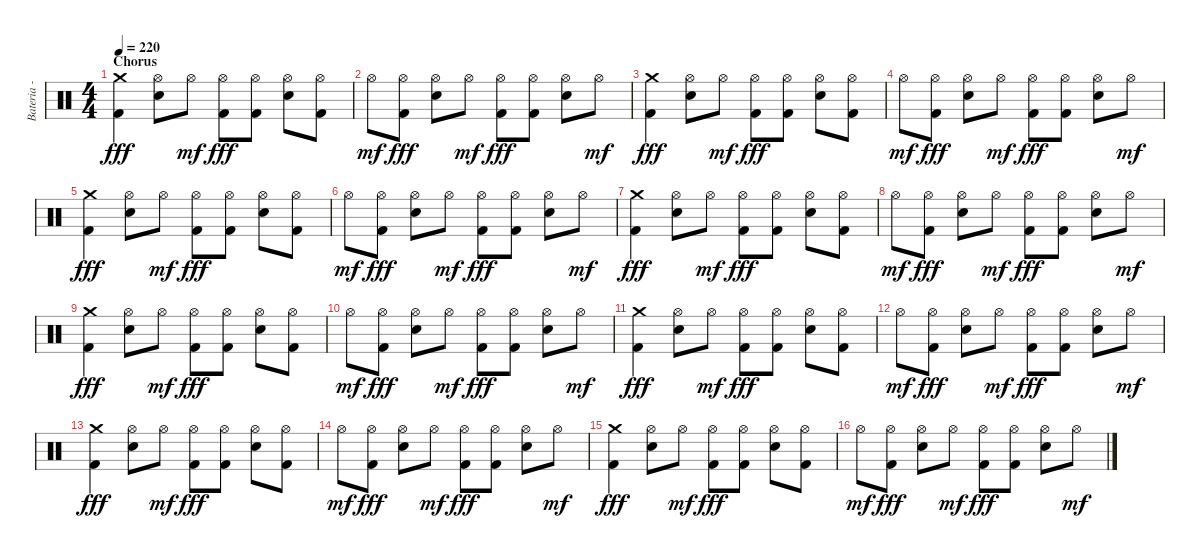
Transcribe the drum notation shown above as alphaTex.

\track ("Bateria - Larzon" "Bateria - ") {instrument percussion}
\staff {score}
\articulation defaults
\ts (4 4)
\section ("" "Chorus")
\tempo 220
\clef neutral
\ks c
("Crash medium (hit)" "Kick (hit) 2").4{dy fff} ("Hi-Hat (open)" "Electric Snare (hit)").8 "Hi-Hat (open)".8{dy mf} ("Hi-Hat (open)" "Kick (hit) 2").8{dy fff} ("Hi-Hat (open)" "Kick (hit) 2").8 ("Hi-Hat (open)" "Electric Snare (hit)").8 ("Hi-Hat (open)" "Kick (hit) 2").8 |
"Hi-Hat (open)".8{dy mf} ("Hi-Hat (open)" "Kick (hit) 2").8{dy fff} ("Hi-Hat (open)" "Electric Snare (hit)").8 "Hi-Hat (open)".8{dy mf} ("Hi-Hat (open)" "Kick (hit) 2").8{dy fff} ("Hi-Hat (open)" "Kick (hit) 2").8 ("Hi-Hat (open)" "Electric Snare (hit)").8 "Hi-Hat (open)".8{dy mf} |
("Crash medium (hit)" "Kick (hit) 2").4{dy fff} ("Hi-Hat (open)" "Electric Snare (hit)").8 "Hi-Hat (open)".8{dy mf} ("Hi-Hat (open)" "Kick (hit) 2").8{dy fff} ("Hi-Hat (open)" "Kick (hit) 2").8 ("Hi-Hat (open)" "Electric Snare (hit)").8 ("Hi-Hat (open)" "Kick (hit) 2").8 |
"Hi-Hat (open)".8{dy mf} ("Hi-Hat (open)" "Kick (hit) 2").8{dy fff} ("Hi-Hat (open)" "Electric Snare (hit)").8 "Hi-Hat (open)".8{dy mf} ("Hi-Hat (open)" "Kick (hit) 2").8{dy fff} ("Hi-Hat (open)" "Kick (hit) 2").8 ("Hi-Hat (open)" "Electric Snare (hit)").8 "Hi-Hat (open)".8{dy mf} |
("Crash medium (hit)" "Kick (hit) 2").4{dy fff} ("Hi-Hat (open)" "Electric Snare (hit)").8 "Hi-Hat (open)".8{dy mf} ("Hi-Hat (open)" "Kick (hit) 2").8{dy fff} ("Hi-Hat (open)" "Kick (hit) 2").8 ("Hi-Hat (open)" "Electric Snare (hit)").8 ("Hi-Hat (open)" "Kick (hit) 2").8 |
"Hi-Hat (open)".8{dy mf} ("Hi-Hat (open)" "Kick (hit) 2").8{dy fff} ("Hi-Hat (open)" "Electric Snare (hit)").8 "Hi-Hat (open)".8{dy mf} ("Hi-Hat (open)" "Kick (hit) 2").8{dy fff} ("Hi-Hat (open)" "Kick (hit) 2").8 ("Hi-Hat (open)" "Electric Snare (hit)").8 "Hi-Hat (open)".8{dy mf} |
("Crash medium (hit)" "Kick (hit) 2").4{dy fff} ("Hi-Hat (open)" "Electric Snare (hit)").8 "Hi-Hat (open)".8{dy mf} ("Hi-Hat (open)" "Kick (hit) 2").8{dy fff} ("Hi-Hat (open)" "Kick (hit) 2").8 ("Hi-Hat (open)" "Electric Snare (hit)").8 ("Hi-Hat (open)" "Kick (hit) 2").8 |
"Hi-Hat (open)".8{dy mf} ("Hi-Hat (open)" "Kick (hit) 2").8{dy fff} ("Hi-Hat (open)" "Electric Snare (hit)").8 "Hi-Hat (open)".8{dy mf} ("Hi-Hat (open)" "Kick (hit) 2").8{dy fff} ("Hi-Hat (open)" "Kick (hit) 2").8 ("Hi-Hat (open)" "Electric Snare (hit)").8 "Hi-Hat (open)".8{dy mf} |
("Crash medium (hit)" "Kick (hit) 2").4{dy fff} ("Hi-Hat (open)" "Electric Snare (hit)").8 "Hi-Hat (open)".8{dy mf} ("Hi-Hat (open)" "Kick (hit) 2").8{dy fff} ("Hi-Hat (open)" "Kick (hit) 2").8 ("Hi-Hat (open)" "Electric Snare (hit)").8 ("Hi-Hat (open)" "Kick (hit) 2").8 |
"Hi-Hat (open)".8{dy mf} ("Hi-Hat (open)" "Kick (hit) 2").8{dy fff} ("Hi-Hat (open)" "Electric Snare (hit)").8 "Hi-Hat (open)".8{dy mf} ("Hi-Hat (open)" "Kick (hit) 2").8{dy fff} ("Hi-Hat (open)" "Kick (hit) 2").8 ("Hi-Hat (open)" "Electric Snare (hit)").8 "Hi-Hat (open)".8{dy mf} |
("Crash medium (hit)" "Kick (hit) 2").4{dy fff} ("Hi-Hat (open)" "Electric Snare (hit)").8 "Hi-Hat (open)".8{dy mf} ("Hi-Hat (open)" "Kick (hit) 2").8{dy fff} ("Hi-Hat (open)" "Kick (hit) 2").8 ("Hi-Hat (open)" "Electric Snare (hit)").8 ("Hi-Hat (open)" "Kick (hit) 2").8 |
"Hi-Hat (open)".8{dy mf} ("Hi-Hat (open)" "Kick (hit) 2").8{dy fff} ("Hi-Hat (open)" "Electric Snare (hit)").8 "Hi-Hat (open)".8{dy mf} ("Hi-Hat (open)" "Kick (hit) 2").8{dy fff} ("Hi-Hat (open)" "Kick (hit) 2").8 ("Hi-Hat (open)" "Electric Snare (hit)").8 "Hi-Hat (open)".8{dy mf} |
("Crash medium (hit)" "Kick (hit) 2").4{dy fff} ("Hi-Hat (open)" "Electric Snare (hit)").8 "Hi-Hat (open)".8{dy mf} ("Hi-Hat (open)" "Kick (hit) 2").8{dy fff} ("Hi-Hat (open)" "Kick (hit) 2").8 ("Hi-Hat (open)" "Electric Snare (hit)").8 ("Hi-Hat (open)" "Kick (hit) 2").8 |
"Hi-Hat (open)".8{dy mf} ("Hi-Hat (open)" "Kick (hit) 2").8{dy fff} ("Hi-Hat (open)" "Electric Snare (hit)").8 "Hi-Hat (open)".8{dy mf} ("Hi-Hat (open)" "Kick (hit) 2").8{dy fff} ("Hi-Hat (open)" "Kick (hit) 2").8 ("Hi-Hat (open)" "Electric Snare (hit)").8 "Hi-Hat (open)".8{dy mf} |
("Crash medium (hit)" "Kick (hit) 2").4{dy fff} ("Hi-Hat (open)" "Electric Snare (hit)").8 "Hi-Hat (open)".8{dy mf} ("Hi-Hat (open)" "Kick (hit) 2").8{dy fff} ("Hi-Hat (open)" "Kick (hit) 2").8 ("Hi-Hat (open)" "Electric Snare (hit)").8 ("Hi-Hat (open)" "Kick (hit) 2").8 |
"Hi-Hat (open)".8{dy mf} ("Hi-Hat (open)" "Kick (hit) 2").8{dy fff} ("Hi-Hat (open)" "Electric Snare (hit)").8 "Hi-Hat (open)".8{dy mf} ("Hi-Hat (open)" "Kick (hit) 2").8{dy fff} ("Hi-Hat (open)" "Kick (hit) 2").8 ("Hi-Hat (open)" "Electric Snare (hit)").8 "Hi-Hat (open)".8{dy mf}
